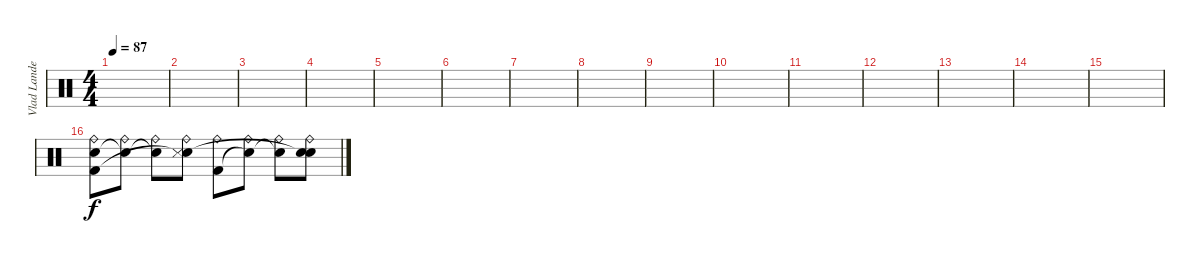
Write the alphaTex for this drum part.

\track ("Vlad Landeros" "Vlad Lande") {instrument percussion}
\staff {score}
\articulation defaults
\ts (4 4)
\tempo 87
\clef neutral
\ks c
|
|
|
|
|
|
|
|
|
|
|
|
|
|
|
("Ride (bell)" "Snare (hit) 2" "Kick (hit) 2").8 ("Ride (bell)" "Snare (hit)"{t}).8 ("Ride (bell)" "Snare (hit)"{t}).8 ("Ride (bell)" "Snare (hit) 2" "Metronome (hit)"{t}).8 ("Ride (bell)" "Kick (hit) 2").8 ("Ride (bell)" "Snare (hit)"{t}).8 ("Ride (bell)" "Snare (hit)"{t}).8 ("Ride (bell)" "Snare (hit) 2" "Snare (hit)"{t}).8
